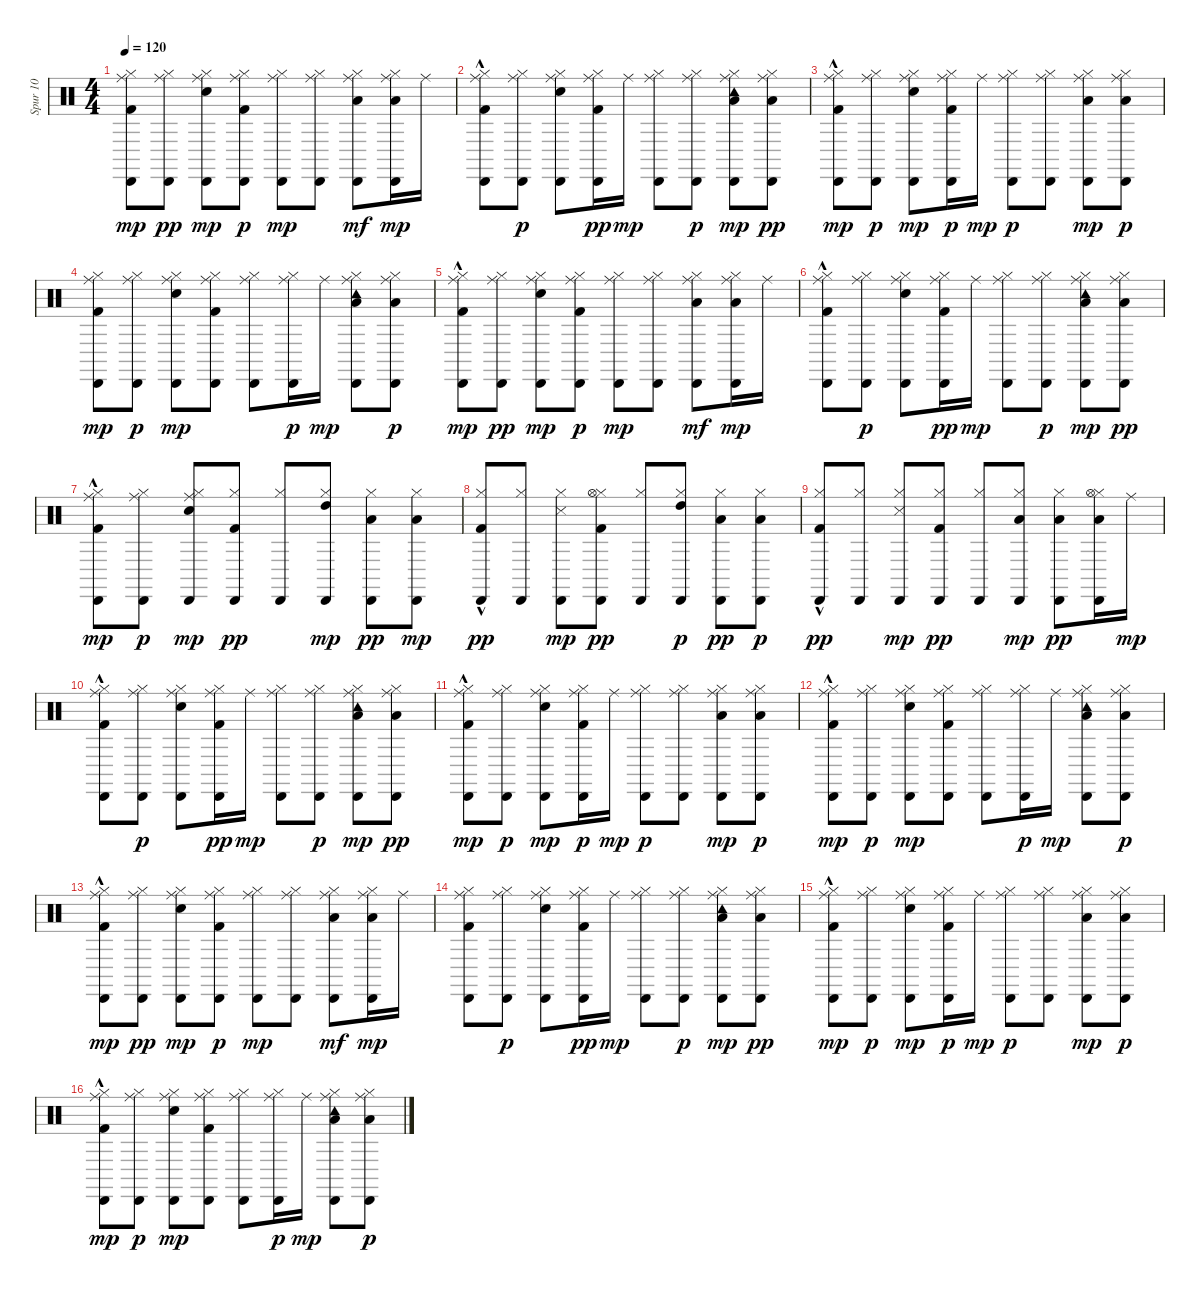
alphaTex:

\track ("Spur 10" "Spur 10") {instrument percussion}
\staff {score}
\articulation defaults
\ts (4 4)
\tempo 120
\clef neutral
\ks c
("Kick (hit) 2" "Hi-Hat (closed)" "Cabasa (hit)" "Ride (middle)").8{dy mp} ("Hi-Hat (closed)" "Cabasa (hit)" "Ride (middle)").8{dy pp} ("Snare (hit) 2" "Hi-Hat (closed)" "Cabasa (hit)" "Ride (middle)").8{dy mp} ("Kick (hit) 2" "Hi-Hat (closed)" "Cabasa (hit)" "Ride (middle)").8{dy p} ("Hi-Hat (closed)" "Cabasa (hit)" "Ride (middle)").8{dy mp} ("Hi-Hat (closed)" "Cabasa (hit)" "Ride (middle)").8 ("Low Floor Tom (hit)" "Hi-Hat (closed)" "Cabasa (hit)" "Ride (middle)").8{dy mf} ("Low Floor Tom (hit)" "Hi-Hat (closed)" "Cabasa (hit)" "Ride (middle)").16{dy mp} "Ride (middle)".16 |
("Kick (hit) 2"{hac} "Hi-Hat (closed)" "Cabasa (hit)" "Ride (middle)").8 ("Hi-Hat (closed)" "Cabasa (hit)" "Ride (middle)").8{dy p} ("Snare (hit) 2" "Hi-Hat (closed)" "Cabasa (hit)" "Ride (middle)").8 ("Kick (hit) 2" "Hi-Hat (closed)" "Cabasa (hit)" "Ride (middle)").16{dy pp} "Ride (middle)".16{dy mp} ("Hi-Hat (closed)" "Cabasa (hit)" "Ride (middle)").8 ("Hi-Hat (closed)" "Cabasa (hit)" "Ride (middle)").8{dy p} ("Low Tom (hit)" "Hi-Hat (closed)" "Cabasa (hit)" "Tambourine (hit)" "Ride (middle)").8{dy mp} ("Low Tom (hit)" "Hi-Hat (closed)" "Cabasa (hit)" "Ride (middle)").8{dy pp} |
("Kick (hit) 2"{hac} "Hi-Hat (closed)" "Cabasa (hit)" "Ride (middle)").8{dy mp} ("Hi-Hat (closed)" "Cabasa (hit)" "Ride (middle)").8{dy p} ("Snare (hit) 2" "Hi-Hat (closed)" "Cabasa (hit)" "Ride (middle)").8{dy mp} ("Kick (hit) 2" "Hi-Hat (closed)" "Cabasa (hit)" "Ride (middle)").16{dy p} "Ride (middle)".16{dy mp} ("Hi-Hat (closed)" "Cabasa (hit)" "Ride (middle)").8{dy p} ("Hi-Hat (closed)" "Cabasa (hit)" "Ride (middle)").8 ("Low Floor Tom (hit)" "Hi-Hat (closed)" "Cabasa (hit)" "Ride (middle)").8{dy mp} ("Low Floor Tom (hit)" "Hi-Hat (closed)" "Cabasa (hit)" "Ride (middle)").8{dy p} |
("Kick (hit) 2" "Hi-Hat (closed)" "Cabasa (hit)" "Ride (middle)").8{dy mp} ("Hi-Hat (closed)" "Cabasa (hit)" "Ride (middle)").8{dy p} ("Snare (hit) 2" "Hi-Hat (closed)" "Cabasa (hit)" "Ride (middle)").8{dy mp} ("Kick (hit) 2" "Hi-Hat (closed)" "Cabasa (hit)" "Ride (middle)").8 ("Hi-Hat (closed)" "Cabasa (hit)" "Ride (middle)").8 ("Hi-Hat (closed)" "Cabasa (hit)" "Ride (middle)").16{dy p} "Ride (middle)".16{dy mp} ("Low Tom (hit)" "Hi-Hat (closed)" "Cabasa (hit)" "Tambourine (hit)" "Ride (middle)").8 ("Low Tom (hit)" "Hi-Hat (closed)" "Cabasa (hit)" "Ride (middle)").8{dy p} |
("Kick (hit) 2"{hac} "Hi-Hat (closed)" "Cabasa (hit)" "Ride (middle)").8{dy mp} ("Hi-Hat (closed)" "Cabasa (hit)" "Ride (middle)").8{dy pp} ("Snare (hit) 2" "Hi-Hat (closed)" "Cabasa (hit)" "Ride (middle)").8{dy mp} ("Kick (hit) 2" "Hi-Hat (closed)" "Cabasa (hit)" "Ride (middle)").8{dy p} ("Hi-Hat (closed)" "Cabasa (hit)" "Ride (middle)").8{dy mp} ("Hi-Hat (closed)" "Cabasa (hit)" "Ride (middle)").8 ("Low Floor Tom (hit)" "Hi-Hat (closed)" "Cabasa (hit)" "Ride (middle)").8{dy mf} ("Low Floor Tom (hit)" "Hi-Hat (closed)" "Cabasa (hit)" "Ride (middle)").16{dy mp} "Ride (middle)".16 |
("Kick (hit) 2"{hac} "Hi-Hat (closed)" "Cabasa (hit)" "Ride (middle)").8 ("Hi-Hat (closed)" "Cabasa (hit)" "Ride (middle)").8{dy p} ("Snare (hit) 2" "Hi-Hat (closed)" "Cabasa (hit)" "Ride (middle)").8 ("Kick (hit) 2" "Hi-Hat (closed)" "Cabasa (hit)" "Ride (middle)").16{dy pp} "Ride (middle)".16{dy mp} ("Hi-Hat (closed)" "Cabasa (hit)" "Ride (middle)").8 ("Hi-Hat (closed)" "Cabasa (hit)" "Ride (middle)").8{dy p} ("Low Tom (hit)" "Hi-Hat (closed)" "Cabasa (hit)" "Tambourine (hit)" "Ride (middle)").8{dy mp} ("Low Tom (hit)" "Hi-Hat (closed)" "Cabasa (hit)" "Ride (middle)").8{dy pp} |
("Kick (hit) 2"{hac} "Hi-Hat (closed)" "Cabasa (hit)" "Ride (middle)").8{dy mp} ("Hi-Hat (closed)" "Cabasa (hit)" "Ride (middle)").8{dy p} ("Snare (hit) 2" "Hi-Hat (closed)" "Cabasa (hit)" "Ride (middle)").8{dy mp} ("Kick (hit) 2" "Hi-Hat (closed)" "Cabasa (hit)").8{dy pp} ("Hi-Hat (closed)" "Cabasa (hit)").8 ("High Tom (hit)" "Hi-Hat (closed)" "Cabasa (hit)").8{dy mp} ("Low Floor Tom (hit)" "Hi-Hat (closed)" "Cabasa (hit)").8{dy pp} ("Low Floor Tom (hit)" "Hi-Hat (closed)" "Cabasa (hit)").8{dy mp} |
("Kick (hit) 2"{hac} "Hi-Hat (closed)" "Cabasa (hit)").8{dy pp} ("Hi-Hat (closed)" "Cabasa (hit)").8 ("Snare (side stick) 3" "Hi-Hat (closed)" "Cabasa (hit)").8{dy mp} ("Kick (hit) 2" "Hi-Hat (closed)" "Hi-Hat (open)" "Cabasa (hit)").8{dy pp} ("Hi-Hat (closed)" "Cabasa (hit)").8 ("High Tom (hit)" "Hi-Hat (closed)" "Cabasa (hit)").8{dy p} ("Low Tom (hit)" "Hi-Hat (closed)" "Cabasa (hit)").8{dy pp} ("Low Tom (hit)" "Hi-Hat (closed)" "Cabasa (hit)").8{dy p} |
("Kick (hit) 2"{hac} "Hi-Hat (closed)" "Cabasa (hit)").8{dy pp} ("Hi-Hat (closed)" "Cabasa (hit)").8 ("Snare (side stick) 3" "Hi-Hat (closed)" "Cabasa (hit)").8{dy mp} ("Kick (hit) 2" "Hi-Hat (closed)" "Cabasa (hit)").8{dy pp} ("Hi-Hat (closed)" "Cabasa (hit)").8 ("Low Tom (hit)" "Hi-Hat (closed)" "Cabasa (hit)").8{dy mp} ("Low Floor Tom (hit)" "Hi-Hat (closed)" "Cabasa (hit)").8{dy pp} ("Low Floor Tom (hit)" "Hi-Hat (closed)" "Hi-Hat (open)" "Cabasa (hit)").16 "Ride (middle)".16{dy mp} |
("Kick (hit) 2"{hac} "Hi-Hat (closed)" "Cabasa (hit)" "Ride (middle)").8 ("Hi-Hat (closed)" "Cabasa (hit)" "Ride (middle)").8{dy p} ("Snare (hit) 2" "Hi-Hat (closed)" "Cabasa (hit)" "Ride (middle)").8 ("Kick (hit) 2" "Hi-Hat (closed)" "Cabasa (hit)" "Ride (middle)").16{dy pp} "Ride (middle)".16{dy mp} ("Hi-Hat (closed)" "Cabasa (hit)" "Ride (middle)").8 ("Hi-Hat (closed)" "Cabasa (hit)" "Ride (middle)").8{dy p} ("Low Tom (hit)" "Hi-Hat (closed)" "Cabasa (hit)" "Tambourine (hit)" "Ride (middle)").8{dy mp} ("Low Tom (hit)" "Hi-Hat (closed)" "Cabasa (hit)" "Ride (middle)").8{dy pp} |
("Kick (hit) 2"{hac} "Hi-Hat (closed)" "Cabasa (hit)" "Ride (middle)").8{dy mp} ("Hi-Hat (closed)" "Cabasa (hit)" "Ride (middle)").8{dy p} ("Snare (hit) 2" "Hi-Hat (closed)" "Cabasa (hit)" "Ride (middle)").8{dy mp} ("Kick (hit) 2" "Hi-Hat (closed)" "Cabasa (hit)" "Ride (middle)").16{dy p} "Ride (middle)".16{dy mp} ("Hi-Hat (closed)" "Cabasa (hit)" "Ride (middle)").8{dy p} ("Hi-Hat (closed)" "Cabasa (hit)" "Ride (middle)").8 ("Low Floor Tom (hit)" "Hi-Hat (closed)" "Cabasa (hit)" "Ride (middle)").8{dy mp} ("Low Floor Tom (hit)" "Hi-Hat (closed)" "Cabasa (hit)" "Ride (middle)").8{dy p} |
("Kick (hit) 2"{hac} "Hi-Hat (closed)" "Cabasa (hit)" "Ride (middle)").8{dy mp} ("Hi-Hat (closed)" "Cabasa (hit)" "Ride (middle)").8{dy p} ("Snare (hit) 2" "Hi-Hat (closed)" "Cabasa (hit)" "Ride (middle)").8{dy mp} ("Kick (hit) 2" "Hi-Hat (closed)" "Cabasa (hit)" "Ride (middle)").8 ("Hi-Hat (closed)" "Cabasa (hit)" "Ride (middle)").8 ("Hi-Hat (closed)" "Cabasa (hit)" "Ride (middle)").16{dy p} "Ride (middle)".16{dy mp} ("Low Tom (hit)" "Hi-Hat (closed)" "Cabasa (hit)" "Tambourine (hit)" "Ride (middle)").8 ("Low Tom (hit)" "Hi-Hat (closed)" "Cabasa (hit)" "Ride (middle)").8{dy p} |
("Kick (hit) 2"{hac} "Hi-Hat (closed)" "Cabasa (hit)" "Ride (middle)").8{dy mp} ("Hi-Hat (closed)" "Cabasa (hit)" "Ride (middle)").8{dy pp} ("Snare (hit) 2" "Hi-Hat (closed)" "Cabasa (hit)" "Ride (middle)").8{dy mp} ("Kick (hit) 2" "Hi-Hat (closed)" "Cabasa (hit)" "Ride (middle)").8{dy p} ("Hi-Hat (closed)" "Cabasa (hit)" "Ride (middle)").8{dy mp} ("Hi-Hat (closed)" "Cabasa (hit)" "Ride (middle)").8 ("Low Floor Tom (hit)" "Hi-Hat (closed)" "Cabasa (hit)" "Ride (middle)").8{dy mf} ("Low Floor Tom (hit)" "Hi-Hat (closed)" "Cabasa (hit)" "Ride (middle)").16{dy mp} "Ride (middle)".16 |
("Kick (hit) 2" "Hi-Hat (closed)" "Cabasa (hit)" "Ride (middle)").8 ("Hi-Hat (closed)" "Cabasa (hit)" "Ride (middle)").8{dy p} ("Snare (hit) 2" "Hi-Hat (closed)" "Cabasa (hit)" "Ride (middle)").8 ("Kick (hit) 2" "Hi-Hat (closed)" "Cabasa (hit)" "Ride (middle)").16{dy pp} "Ride (middle)".16{dy mp} ("Hi-Hat (closed)" "Cabasa (hit)" "Ride (middle)").8 ("Hi-Hat (closed)" "Cabasa (hit)" "Ride (middle)").8{dy p} ("Low Tom (hit)" "Hi-Hat (closed)" "Cabasa (hit)" "Tambourine (hit)" "Ride (middle)").8{dy mp} ("Low Tom (hit)" "Hi-Hat (closed)" "Cabasa (hit)" "Ride (middle)").8{dy pp} |
("Kick (hit) 2"{hac} "Hi-Hat (closed)" "Cabasa (hit)" "Ride (middle)").8{dy mp} ("Hi-Hat (closed)" "Cabasa (hit)" "Ride (middle)").8{dy p} ("Snare (hit) 2" "Hi-Hat (closed)" "Cabasa (hit)" "Ride (middle)").8{dy mp} ("Kick (hit) 2" "Hi-Hat (closed)" "Cabasa (hit)" "Ride (middle)").16{dy p} "Ride (middle)".16{dy mp} ("Hi-Hat (closed)" "Cabasa (hit)" "Ride (middle)").8{dy p} ("Hi-Hat (closed)" "Cabasa (hit)" "Ride (middle)").8 ("Low Floor Tom (hit)" "Hi-Hat (closed)" "Cabasa (hit)" "Ride (middle)").8{dy mp} ("Low Floor Tom (hit)" "Hi-Hat (closed)" "Cabasa (hit)" "Ride (middle)").8{dy p} |
("Kick (hit) 2"{hac} "Hi-Hat (closed)" "Cabasa (hit)" "Ride (middle)").8{dy mp} ("Hi-Hat (closed)" "Cabasa (hit)" "Ride (middle)").8{dy p} ("Snare (hit) 2" "Hi-Hat (closed)" "Cabasa (hit)" "Ride (middle)").8{dy mp} ("Kick (hit) 2" "Hi-Hat (closed)" "Cabasa (hit)" "Ride (middle)").8 ("Hi-Hat (closed)" "Cabasa (hit)" "Ride (middle)").8 ("Hi-Hat (closed)" "Cabasa (hit)" "Ride (middle)").16{dy p} "Ride (middle)".16{dy mp} ("Low Tom (hit)" "Hi-Hat (closed)" "Cabasa (hit)" "Tambourine (hit)" "Ride (middle)").8 ("Low Tom (hit)" "Hi-Hat (closed)" "Cabasa (hit)" "Ride (middle)").8{dy p}
